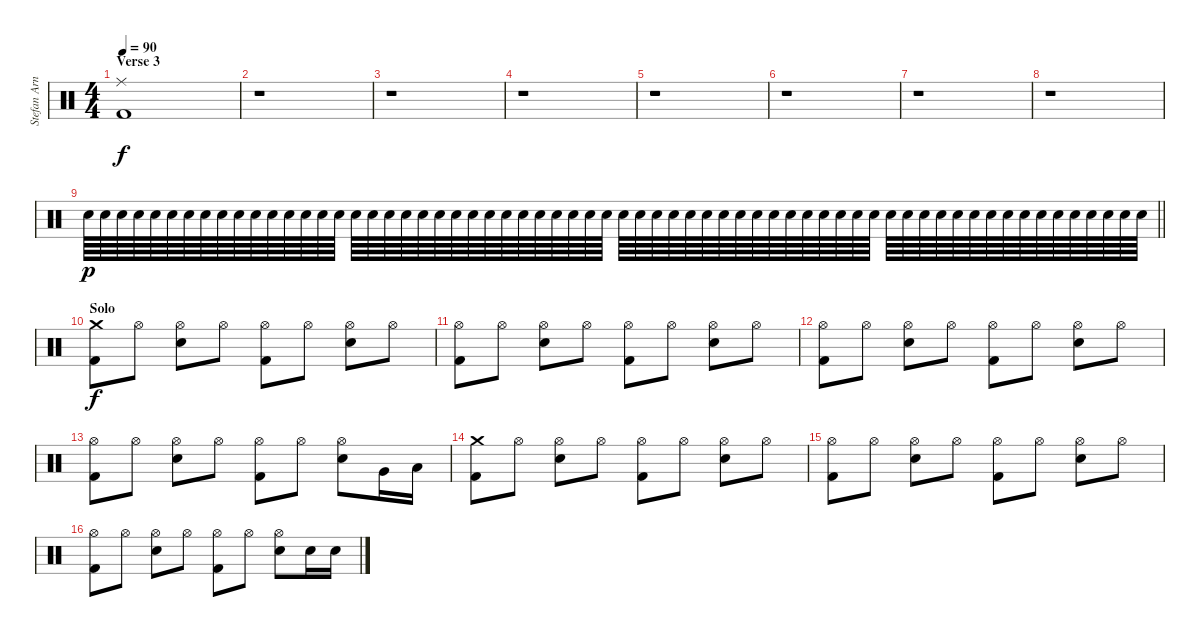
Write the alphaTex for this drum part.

\track ("Stefan Arnold" "Stefan Arn") {instrument percussion}
\staff {score}
\articulation defaults
\ts (4 4)
\section ("" "Verse 3")
\tempo 90
\clef neutral
\ks c
("Ride (middle)" "Kick (hit) 2").1{dy f} |
r.1 |
r.1 |
r.1 |
r.1 |
r.1 |
r.1 |
r.1 |
\barLineRight lightlight "Electric Snare (hit)".64{dy p} "Electric Snare (hit)".64 "Electric Snare (hit)".64 "Electric Snare (hit)".64 "Electric Snare (hit)".64 "Electric Snare (hit)".64 "Electric Snare (hit)".64 "Electric Snare (hit)".64 "Electric Snare (hit)".64 "Electric Snare (hit)".64 "Electric Snare (hit)".64 "Electric Snare (hit)".64 "Electric Snare (hit)".64 "Electric Snare (hit)".64 "Electric Snare (hit)".64 "Electric Snare (hit)".64 "Electric Snare (hit)".64 "Electric Snare (hit)".64 "Electric Snare (hit)".64 "Electric Snare (hit)".64 "Electric Snare (hit)".64 "Electric Snare (hit)".64 "Electric Snare (hit)".64 "Electric Snare (hit)".64 "Electric Snare (hit)".64 "Electric Snare (hit)".64 "Electric Snare (hit)".64 "Electric Snare (hit)".64 "Electric Snare (hit)".64 "Electric Snare (hit)".64 "Electric Snare (hit)".64 "Electric Snare (hit)".64 "Electric Snare (hit)".64 "Electric Snare (hit)".64 "Electric Snare (hit)".64 "Electric Snare (hit)".64 "Electric Snare (hit)".64 "Electric Snare (hit)".64 "Electric Snare (hit)".64 "Electric Snare (hit)".64 "Electric Snare (hit)".64 "Electric Snare (hit)".64 "Electric Snare (hit)".64 "Electric Snare (hit)".64 "Electric Snare (hit)".64 "Electric Snare (hit)".64 "Electric Snare (hit)".64 "Electric Snare (hit)".64 "Electric Snare (hit)".64 "Electric Snare (hit)".64 "Electric Snare (hit)".64 "Electric Snare (hit)".64 "Electric Snare (hit)".64 "Electric Snare (hit)".64 "Electric Snare (hit)".64 "Electric Snare (hit)".64 "Electric Snare (hit)".64 "Electric Snare (hit)".64 "Electric Snare (hit)".64 "Electric Snare (hit)".64 "Electric Snare (hit)".64 "Electric Snare (hit)".64 "Electric Snare (hit)".64 "Electric Snare (hit)".64
|
\section ("" "Solo")
("Crash medium (hit)" "Kick (hit) 2").8{dy f} "Hi-Hat (open)".8 ("Hi-Hat (open)" "Electric Snare (hit)").8 "Hi-Hat (open)".8 ("Hi-Hat (open)" "Kick (hit) 2").8 "Hi-Hat (open)".8 ("Hi-Hat (open)" "Electric Snare (hit)").8 "Hi-Hat (open)".8 |
("Hi-Hat (open)" "Kick (hit) 2").8 "Hi-Hat (open)".8 ("Hi-Hat (open)" "Electric Snare (hit)").8 "Hi-Hat (open)".8 ("Hi-Hat (open)" "Kick (hit) 2").8 "Hi-Hat (open)".8 ("Hi-Hat (open)" "Electric Snare (hit)").8 "Hi-Hat (open)".8 |
("Hi-Hat (open)" "Kick (hit) 2").8 "Hi-Hat (open)".8 ("Hi-Hat (open)" "Electric Snare (hit)").8 "Hi-Hat (open)".8 ("Hi-Hat (open)" "Kick (hit) 2").8 "Hi-Hat (open)".8 ("Hi-Hat (open)" "Electric Snare (hit)").8 "Hi-Hat (open)".8 |
("Hi-Hat (open)" "Kick (hit) 2").8 "Hi-Hat (open)".8 ("Hi-Hat (open)" "Electric Snare (hit)").8 "Hi-Hat (open)".8 ("Hi-Hat (open)" "Kick (hit) 2").8 "Hi-Hat (open)".8 ("Hi-Hat (open)" "Electric Snare (hit)").8 "Very Low Tom (hit)".16 "Low Floor Tom (hit)".16 |
("Crash medium (hit)" "Kick (hit) 2").8 "Hi-Hat (open)".8 ("Hi-Hat (open)" "Electric Snare (hit)").8 "Hi-Hat (open)".8 ("Hi-Hat (open)" "Kick (hit) 2").8 "Hi-Hat (open)".8 ("Hi-Hat (open)" "Electric Snare (hit)").8 "Hi-Hat (open)".8 |
("Hi-Hat (open)" "Kick (hit) 2").8 "Hi-Hat (open)".8 ("Hi-Hat (open)" "Electric Snare (hit)").8 "Hi-Hat (open)".8 ("Hi-Hat (open)" "Kick (hit) 2").8 "Hi-Hat (open)".8 ("Hi-Hat (open)" "Electric Snare (hit)").8 "Hi-Hat (open)".8 |
("Hi-Hat (open)" "Kick (hit) 2").8 "Hi-Hat (open)".8 ("Hi-Hat (open)" "Electric Snare (hit)").8 "Hi-Hat (open)".8 ("Hi-Hat (open)" "Kick (hit) 2").8 "Hi-Hat (open)".8 ("Hi-Hat (open)" "Electric Snare (hit)").8 "Electric Snare (hit)".16 "Electric Snare (hit)".16
